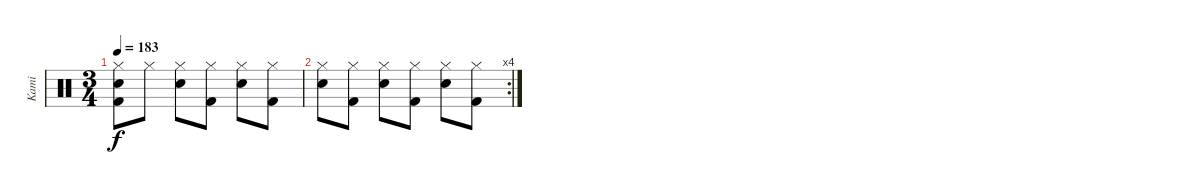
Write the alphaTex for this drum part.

\track ("Kami" "Kami") {instrument percussion}
\staff {score}
\articulation defaults
\ts (3 4)
\tempo 183
\clef neutral
\ks c
("Hi-Hat (closed)" "Electric Snare (hit)" "Kick (hit) 2").8{dy f} "Hi-Hat (closed)".8 ("Hi-Hat (closed)" "Electric Snare (hit)").8 ("Hi-Hat (closed)" "Kick (hit) 2").8 ("Hi-Hat (closed)" "Electric Snare (hit)").8 ("Hi-Hat (closed)" "Kick (hit) 2").8 |
\rc 4
("Hi-Hat (closed)" "Electric Snare (hit)").8 ("Hi-Hat (closed)" "Kick (hit) 2").8 ("Hi-Hat (closed)" "Electric Snare (hit)").8 ("Hi-Hat (closed)" "Kick (hit) 2").8 ("Hi-Hat (closed)" "Electric Snare (hit)").8 ("Hi-Hat (closed)" "Kick (hit) 2").8
